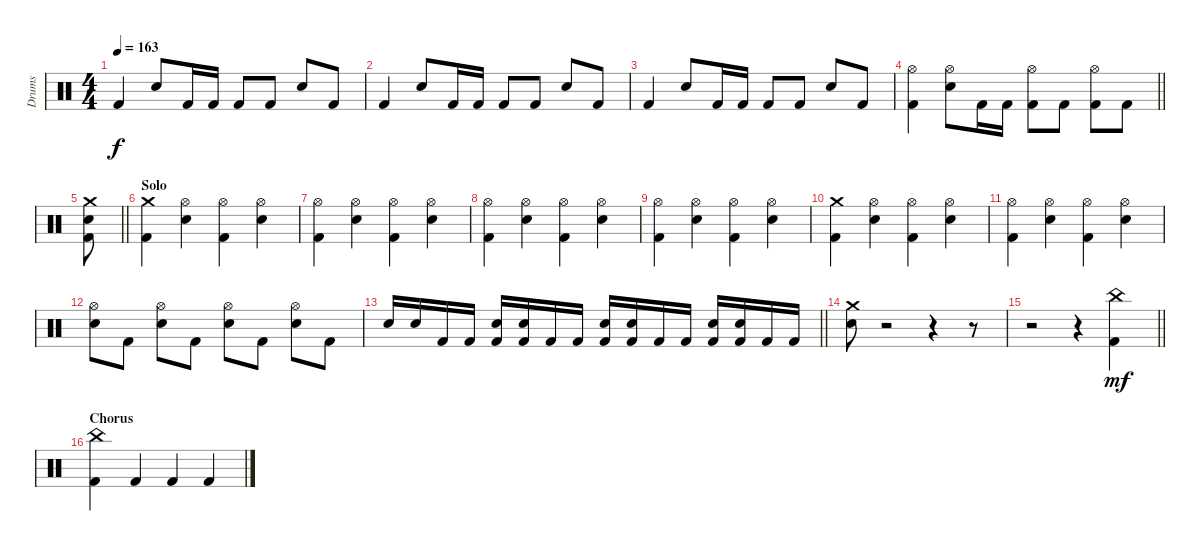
\track ("Drums" "Drums") {instrument percussion}
\staff {score}
\articulation defaults
\ts (4 4)
\tempo 163
\clef neutral
\ks c "Kick (hit) 2".4{dy f} "Electric Snare (hit)".8 "Kick (hit) 2".16 "Kick (hit) 2".16 "Kick (hit) 2".8 "Kick (hit) 2".8 "Electric Snare (hit)".8 "Kick (hit) 2".8
|
"Kick (hit) 2".4 "Electric Snare (hit)".8 "Kick (hit) 2".16 "Kick (hit) 2".16 "Kick (hit) 2".8 "Kick (hit) 2".8 "Electric Snare (hit)".8 "Kick (hit) 2".8 |
"Kick (hit) 2".4 "Electric Snare (hit)".8 "Kick (hit) 2".16 "Kick (hit) 2".16 "Kick (hit) 2".8 "Kick (hit) 2".8 "Electric Snare (hit)".8 "Kick (hit) 2".8 |
\barLineRight lightlight
("Hi-Hat (open)" "Kick (hit) 2").4 ("Hi-Hat (open)" "Electric Snare (hit)").8 "Kick (hit) 2".16 "Kick (hit) 2".16 ("Hi-Hat (open)" "Kick (hit) 2").8 "Kick (hit) 2".8 ("Hi-Hat (open)" "Kick (hit) 2").8 "Kick (hit) 2".8 |
\barLineRight lightlight
("Crash medium (hit)" "Electric Snare (hit)" "Kick (hit) 2").8 |
\section ("" "Solo")
("Crash medium (hit)" "Kick (hit) 2").4 ("Hi-Hat (open)" "Electric Snare (hit)").4 ("Hi-Hat (open)" "Kick (hit) 2").4 ("Hi-Hat (open)" "Electric Snare (hit)").4 |
("Hi-Hat (open)" "Kick (hit) 2").4 ("Hi-Hat (open)" "Electric Snare (hit)").4 ("Hi-Hat (open)" "Kick (hit) 2").4 ("Hi-Hat (open)" "Electric Snare (hit)").4 |
("Hi-Hat (open)" "Kick (hit) 2").4 ("Hi-Hat (open)" "Electric Snare (hit)").4 ("Hi-Hat (open)" "Kick (hit) 2").4 ("Hi-Hat (open)" "Electric Snare (hit)").4 |
("Hi-Hat (open)" "Kick (hit) 2").4 ("Hi-Hat (open)" "Electric Snare (hit)").4 ("Hi-Hat (open)" "Kick (hit) 2").4 ("Hi-Hat (open)" "Electric Snare (hit)").4 |
("Crash medium (hit)" "Kick (hit) 2").4 ("Hi-Hat (open)" "Electric Snare (hit)").4 ("Hi-Hat (open)" "Kick (hit) 2").4 ("Hi-Hat (open)" "Electric Snare (hit)").4 |
("Hi-Hat (open)" "Kick (hit) 2").4 ("Hi-Hat (open)" "Electric Snare (hit)").4 ("Hi-Hat (open)" "Kick (hit) 2").4 ("Hi-Hat (open)" "Electric Snare (hit)").4 |
("Hi-Hat (open)" "Electric Snare (hit)").8 "Kick (hit) 2".8 ("Hi-Hat (open)" "Electric Snare (hit)").8 "Kick (hit) 2".8 ("Hi-Hat (open)" "Electric Snare (hit)").8 "Kick (hit) 2".8 ("Hi-Hat (open)" "Electric Snare (hit)").8 "Kick (hit) 2".8 |
\barLineRight lightlight "Electric Snare (hit)".16 "Electric Snare (hit)".16 "Kick (hit) 2".16 "Kick (hit) 2".16
("Electric Snare (hit)" "Kick (hit) 2").16 ("Electric Snare (hit)" "Kick (hit) 2").16 "Kick (hit) 2".16 "Kick (hit) 2".16 ("Electric Snare (hit)" "Kick (hit) 2").16 ("Electric Snare (hit)" "Kick (hit) 2").16 "Kick (hit) 2".16 "Kick (hit) 2".16 ("Electric Snare (hit)" "Kick (hit) 2").16 ("Electric Snare (hit)" "Kick (hit) 2").16 "Kick (hit) 2".16 "Kick (hit) 2".16 |
("Crash medium (hit)" "Electric Snare (hit)").8 r.2 r.4 r.8 |
\barLineRight lightlight
r.2 r.4 ("China (hit)" "Kick (hit) 2").4{dy mf} |
\section ("" "Chorus")
("China (hit)" "Kick (hit) 2").4 "Kick (hit) 2".4 "Kick (hit) 2".4 "Kick (hit) 2".4
